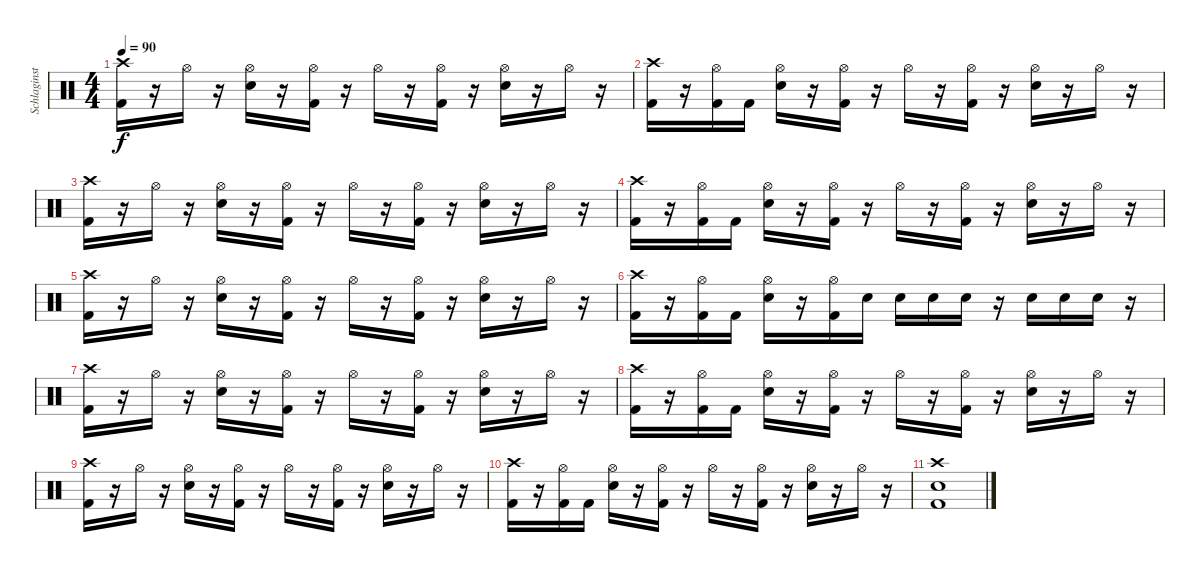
\track ("Schlaginstrumente - Auswahl" "Schlaginst") {instrument percussion}
\staff {score}
\articulation defaults
\ts (4 4)
\tempo 90
\clef neutral
\ks c
("Crash high (hit)" "Kick (hit) 2").16{dy f} r.16 "Hi-Hat (open)".16 r.16 ("Hi-Hat (open)" "Snare (hit) 2").16 r.16 ("Hi-Hat (open)" "Kick (hit) 2").16 r.16 "Hi-Hat (open)".16 r.16 ("Hi-Hat (open)" "Kick (hit) 2").16 r.16 ("Hi-Hat (open)" "Snare (hit) 2").16 r.16 "Hi-Hat (open)".16 r.16 |
("Crash high (hit)" "Kick (hit) 2").16 r.16 ("Hi-Hat (open)" "Kick (hit) 2").16 "Kick (hit) 2".16 ("Hi-Hat (open)" "Snare (hit) 2").16 r.16 ("Hi-Hat (open)" "Kick (hit) 2").16 r.16 "Hi-Hat (open)".16 r.16 ("Hi-Hat (open)" "Kick (hit) 2").16 r.16 ("Hi-Hat (open)" "Snare (hit) 2").16 r.16 "Hi-Hat (open)".16 r.16 |
("Crash high (hit)" "Kick (hit) 2").16 r.16 "Hi-Hat (open)".16 r.16 ("Hi-Hat (open)" "Snare (hit) 2").16 r.16 ("Hi-Hat (open)" "Kick (hit) 2").16 r.16 "Hi-Hat (open)".16 r.16 ("Hi-Hat (open)" "Kick (hit) 2").16 r.16 ("Hi-Hat (open)" "Snare (hit) 2").16 r.16 "Hi-Hat (open)".16 r.16 |
("Crash high (hit)" "Kick (hit) 2").16 r.16 ("Hi-Hat (open)" "Kick (hit) 2").16 "Kick (hit) 2".16 ("Hi-Hat (open)" "Snare (hit) 2").16 r.16 ("Hi-Hat (open)" "Kick (hit) 2").16 r.16 "Hi-Hat (open)".16 r.16 ("Hi-Hat (open)" "Kick (hit) 2").16 r.16 ("Hi-Hat (open)" "Snare (hit) 2").16 r.16 "Hi-Hat (open)".16 r.16 |
("Crash high (hit)" "Kick (hit) 2").16 r.16 "Hi-Hat (open)".16 r.16 ("Hi-Hat (open)" "Snare (hit) 2").16 r.16 ("Hi-Hat (open)" "Kick (hit) 2").16 r.16 "Hi-Hat (open)".16 r.16 ("Hi-Hat (open)" "Kick (hit) 2").16 r.16 ("Hi-Hat (open)" "Snare (hit) 2").16 r.16 "Hi-Hat (open)".16 r.16 |
("Crash high (hit)" "Kick (hit) 2").16 r.16 ("Hi-Hat (open)" "Kick (hit) 2").16 "Kick (hit) 2".16 ("Hi-Hat (open)" "Snare (hit) 2").16 r.16 ("Hi-Hat (open)" "Kick (hit) 2").16 "Snare (hit) 2".16 "Snare (hit) 2".16 "Snare (hit) 2".16 "Snare (hit) 2".16 r.16 "Snare (hit) 2".16 "Snare (hit) 2".16 "Snare (hit) 2".16 r.16 |
("Crash high (hit)" "Kick (hit) 2").16 r.16 "Hi-Hat (open)".16 r.16 ("Hi-Hat (open)" "Snare (hit) 2").16 r.16 ("Hi-Hat (open)" "Kick (hit) 2").16 r.16 "Hi-Hat (open)".16 r.16 ("Hi-Hat (open)" "Kick (hit) 2").16 r.16 ("Hi-Hat (open)" "Snare (hit) 2").16 r.16 "Hi-Hat (open)".16 r.16 |
("Crash high (hit)" "Kick (hit) 2").16 r.16 ("Hi-Hat (open)" "Kick (hit) 2").16 "Kick (hit) 2".16 ("Hi-Hat (open)" "Snare (hit) 2").16 r.16 ("Hi-Hat (open)" "Kick (hit) 2").16 r.16 "Hi-Hat (open)".16 r.16 ("Hi-Hat (open)" "Kick (hit) 2").16 r.16 ("Hi-Hat (open)" "Snare (hit) 2").16 r.16 "Hi-Hat (open)".16 r.16 |
("Crash high (hit)" "Kick (hit) 2").16 r.16 "Hi-Hat (open)".16 r.16 ("Hi-Hat (open)" "Snare (hit) 2").16 r.16 ("Hi-Hat (open)" "Kick (hit) 2").16 r.16 "Hi-Hat (open)".16 r.16 ("Hi-Hat (open)" "Kick (hit) 2").16 r.16 ("Hi-Hat (open)" "Snare (hit) 2").16 r.16 "Hi-Hat (open)".16 r.16 |
("Crash high (hit)" "Kick (hit) 2").16 r.16 ("Hi-Hat (open)" "Kick (hit) 2").16 "Kick (hit) 2".16 ("Hi-Hat (open)" "Snare (hit) 2").16 r.16 ("Hi-Hat (open)" "Kick (hit) 2").16 r.16 "Hi-Hat (open)".16 r.16 ("Hi-Hat (open)" "Kick (hit) 2").16 r.16 ("Hi-Hat (open)" "Snare (hit) 2").16 r.16 "Hi-Hat (open)".16 r.16 |
("Crash high (hit)" "Kick (hit) 2" "Snare (hit) 2").1
